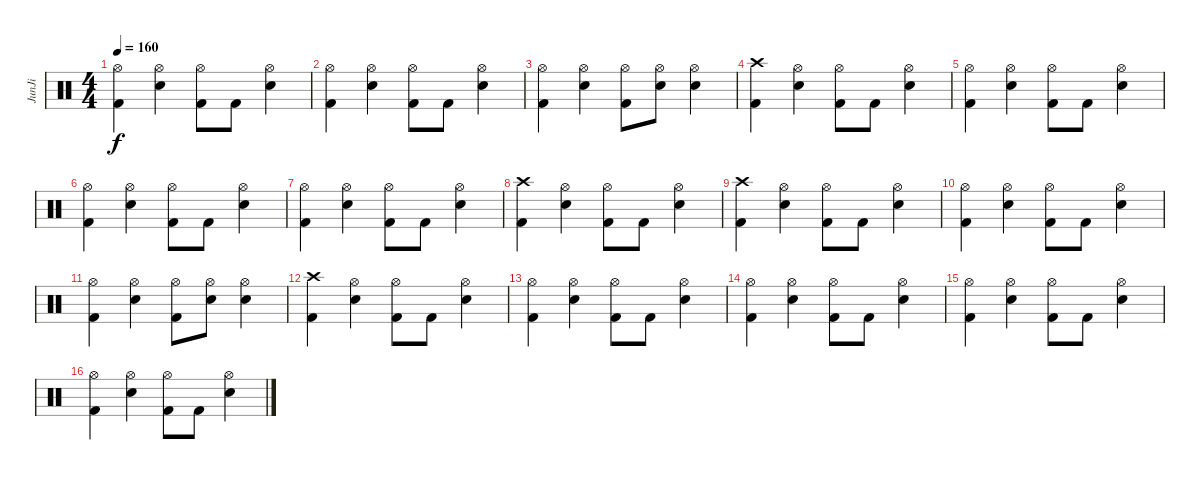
\track ("JunJi" "JunJi") {instrument percussion}
\staff {score}
\articulation defaults
\ts (4 4)
\tempo 160
\clef neutral
\ks c
("Hi-Hat (open)" "Kick (hit) 2").4{dy f} ("Hi-Hat (open)" "Snare (hit) 2").4 ("Hi-Hat (open)" "Kick (hit) 2").8 "Kick (hit) 2".8 ("Hi-Hat (open)" "Snare (hit) 2").4 |
("Hi-Hat (open)" "Kick (hit) 2").4 ("Hi-Hat (open)" "Snare (hit) 2").4 ("Hi-Hat (open)" "Kick (hit) 2").8 "Kick (hit) 2".8 ("Hi-Hat (open)" "Snare (hit) 2").4 |
("Hi-Hat (open)" "Kick (hit) 2").4 ("Hi-Hat (open)" "Snare (hit) 2").4 ("Hi-Hat (open)" "Kick (hit) 2").8 ("Hi-Hat (open)" "Snare (hit) 2").8 ("Hi-Hat (open)" "Snare (hit) 2").4 |
("Crash high (hit)" "Kick (hit) 2").4 ("Hi-Hat (open)" "Snare (hit) 2").4 ("Hi-Hat (open)" "Kick (hit) 2").8 "Kick (hit) 2".8 ("Hi-Hat (open)" "Snare (hit) 2").4 |
("Hi-Hat (open)" "Kick (hit) 2").4 ("Hi-Hat (open)" "Snare (hit) 2").4 ("Hi-Hat (open)" "Kick (hit) 2").8 "Kick (hit) 2".8 ("Hi-Hat (open)" "Snare (hit) 2").4 |
("Hi-Hat (open)" "Kick (hit) 2").4 ("Hi-Hat (open)" "Snare (hit) 2").4 ("Hi-Hat (open)" "Kick (hit) 2").8 "Kick (hit) 2".8 ("Hi-Hat (open)" "Snare (hit) 2").4 |
("Hi-Hat (open)" "Kick (hit) 2").4 ("Hi-Hat (open)" "Snare (hit) 2").4 ("Hi-Hat (open)" "Kick (hit) 2").8 "Kick (hit) 2".8 ("Hi-Hat (open)" "Snare (hit) 2").4 |
("Crash high (hit)" "Kick (hit) 2").4 ("Hi-Hat (open)" "Snare (hit) 2").4 ("Hi-Hat (open)" "Kick (hit) 2").8 "Kick (hit) 2".8 ("Hi-Hat (open)" "Snare (hit) 2").4 |
("Crash high (hit)" "Kick (hit) 2").4 ("Hi-Hat (open)" "Snare (hit) 2").4 ("Hi-Hat (open)" "Kick (hit) 2").8 "Kick (hit) 2".8 ("Hi-Hat (open)" "Snare (hit) 2").4 |
("Hi-Hat (open)" "Kick (hit) 2").4 ("Hi-Hat (open)" "Snare (hit) 2").4 ("Hi-Hat (open)" "Kick (hit) 2").8 "Kick (hit) 2".8 ("Hi-Hat (open)" "Snare (hit) 2").4 |
("Hi-Hat (open)" "Kick (hit) 2").4 ("Hi-Hat (open)" "Snare (hit) 2").4 ("Hi-Hat (open)" "Kick (hit) 2").8 ("Hi-Hat (open)" "Snare (hit) 2").8 ("Hi-Hat (open)" "Snare (hit) 2").4 |
("Crash high (hit)" "Kick (hit) 2").4 ("Hi-Hat (open)" "Snare (hit) 2").4 ("Hi-Hat (open)" "Kick (hit) 2").8 "Kick (hit) 2".8 ("Hi-Hat (open)" "Snare (hit) 2").4 |
("Hi-Hat (open)" "Kick (hit) 2").4 ("Hi-Hat (open)" "Snare (hit) 2").4 ("Hi-Hat (open)" "Kick (hit) 2").8 "Kick (hit) 2".8 ("Hi-Hat (open)" "Snare (hit) 2").4 |
("Hi-Hat (open)" "Kick (hit) 2").4 ("Hi-Hat (open)" "Snare (hit) 2").4 ("Hi-Hat (open)" "Kick (hit) 2").8 "Kick (hit) 2".8 ("Hi-Hat (open)" "Snare (hit) 2").4 |
("Hi-Hat (open)" "Kick (hit) 2").4 ("Hi-Hat (open)" "Snare (hit) 2").4 ("Hi-Hat (open)" "Kick (hit) 2").8 "Kick (hit) 2".8 ("Hi-Hat (open)" "Snare (hit) 2").4 |
("Hi-Hat (open)" "Kick (hit) 2").4 ("Hi-Hat (open)" "Snare (hit) 2").4 ("Hi-Hat (open)" "Kick (hit) 2").8 "Kick (hit) 2".8 ("Hi-Hat (open)" "Snare (hit) 2").4
